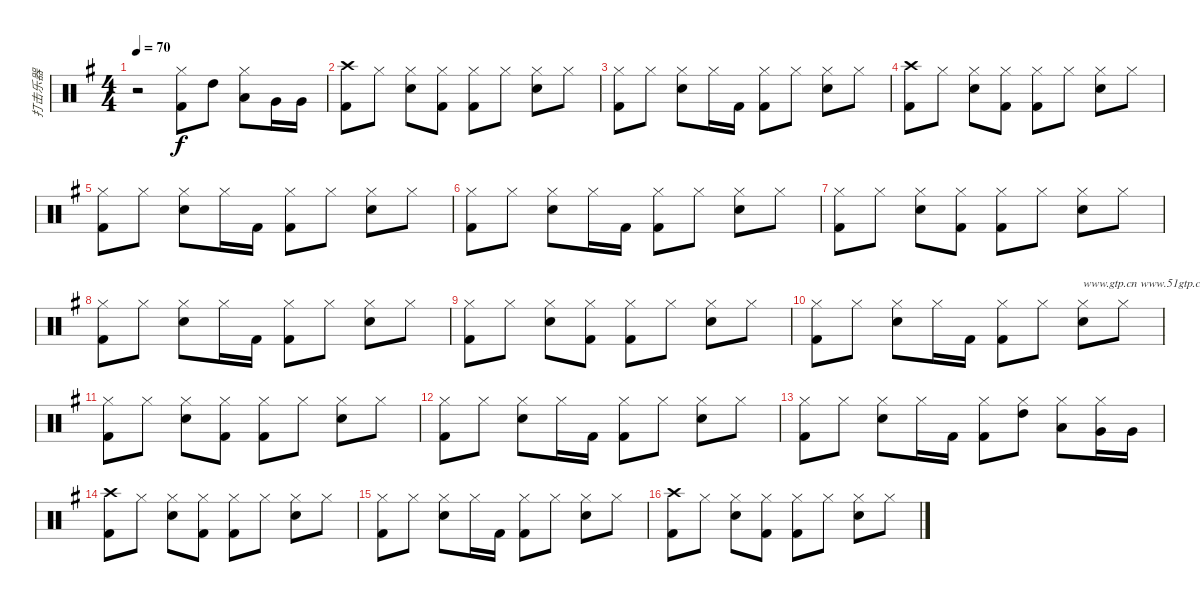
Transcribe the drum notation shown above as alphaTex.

\track ("打击乐器" "打击乐器") {instrument percussion}
\staff {score}
\articulation defaults
\ts (4 4)
\tempo 70
\clef neutral
\ks g
r.2{dy f} ("Kick (hit) 2" "Hi-Hat (closed)").8 "High Tom (hit)".8 ("Low Tom (hit)" "Hi-Hat (closed)").8 "Very Low Tom (hit)".16 "Very Low Tom (hit)".16 |
("Crash high (hit)" "Kick (hit) 2").8 "Hi-Hat (closed)".8 ("Hi-Hat (closed)" "Snare (hit) 2").8 ("Hi-Hat (closed)" "Kick (hit) 2").8 ("Hi-Hat (closed)" "Kick (hit) 2").8 "Hi-Hat (closed)".8 ("Hi-Hat (closed)" "Snare (hit) 2").8 "Hi-Hat (closed)".8 |
("Hi-Hat (closed)" "Kick (hit) 2").8 "Hi-Hat (closed)".8 ("Hi-Hat (closed)" "Snare (hit) 2").8 "Hi-Hat (closed)".16 "Kick (hit) 2".16 ("Hi-Hat (closed)" "Kick (hit) 2").8 "Hi-Hat (closed)".8 ("Hi-Hat (closed)" "Snare (hit) 2").8 "Hi-Hat (closed)".8 |
("Crash high (hit)" "Kick (hit) 2").8 "Hi-Hat (closed)".8 ("Hi-Hat (closed)" "Snare (hit) 2").8 ("Hi-Hat (closed)" "Kick (hit) 2").8 ("Hi-Hat (closed)" "Kick (hit) 2").8 "Hi-Hat (closed)".8 ("Hi-Hat (closed)" "Snare (hit) 2").8 "Hi-Hat (closed)".8 |
("Hi-Hat (closed)" "Kick (hit) 2").8 "Hi-Hat (closed)".8 ("Hi-Hat (closed)" "Snare (hit) 2").8 "Hi-Hat (closed)".16 "Kick (hit) 2".16 ("Hi-Hat (closed)" "Kick (hit) 2").8 "Hi-Hat (closed)".8 ("Hi-Hat (closed)" "Snare (hit) 2").8 "Hi-Hat (closed)".8 |
("Hi-Hat (closed)" "Kick (hit) 2").8 "Hi-Hat (closed)".8 ("Hi-Hat (closed)" "Snare (hit) 2").8 "Hi-Hat (closed)".16 "Kick (hit) 2".16 ("Hi-Hat (closed)" "Kick (hit) 2").8 "Hi-Hat (closed)".8 ("Hi-Hat (closed)" "Snare (hit) 2").8 "Hi-Hat (closed)".8 |
("Hi-Hat (closed)" "Kick (hit) 2").8 "Hi-Hat (closed)".8 ("Hi-Hat (closed)" "Snare (hit) 2").8 ("Hi-Hat (closed)" "Kick (hit) 2").8 ("Hi-Hat (closed)" "Kick (hit) 2").8 "Hi-Hat (closed)".8 ("Hi-Hat (closed)" "Snare (hit) 2").8 "Hi-Hat (closed)".8 |
("Hi-Hat (closed)" "Kick (hit) 2").8 "Hi-Hat (closed)".8 ("Hi-Hat (closed)" "Snare (hit) 2").8 "Hi-Hat (closed)".16 "Kick (hit) 2".16 ("Hi-Hat (closed)" "Kick (hit) 2").8 "Hi-Hat (closed)".8 ("Hi-Hat (closed)" "Snare (hit) 2").8 "Hi-Hat (closed)".8 |
("Hi-Hat (closed)" "Kick (hit) 2").8 "Hi-Hat (closed)".8 ("Hi-Hat (closed)" "Snare (hit) 2").8 ("Hi-Hat (closed)" "Kick (hit) 2").8 ("Hi-Hat (closed)" "Kick (hit) 2").8 "Hi-Hat (closed)".8 ("Hi-Hat (closed)" "Snare (hit) 2").8 "Hi-Hat (closed)".8 |
("Hi-Hat (closed)" "Kick (hit) 2").8 "Hi-Hat (closed)".8 ("Hi-Hat (closed)" "Snare (hit) 2").8 "Hi-Hat (closed)".16 "Kick (hit) 2".16 ("Hi-Hat (closed)" "Kick (hit) 2").8 "Hi-Hat (closed)".8 ("Hi-Hat (closed)" "Snare (hit) 2").8{txt "www.gtp.cn www.51gtp.com联合为您提供优秀的GTP!"} "Hi-Hat (closed)".8 |
("Hi-Hat (closed)" "Kick (hit) 2").8 "Hi-Hat (closed)".8 ("Hi-Hat (closed)" "Snare (hit) 2").8 ("Hi-Hat (closed)" "Kick (hit) 2").8 ("Hi-Hat (closed)" "Kick (hit) 2").8 "Hi-Hat (closed)".8 ("Hi-Hat (closed)" "Snare (hit) 2").8 "Hi-Hat (closed)".8 |
("Hi-Hat (closed)" "Kick (hit) 2").8 "Hi-Hat (closed)".8 ("Hi-Hat (closed)" "Snare (hit) 2").8 "Hi-Hat (closed)".16 "Kick (hit) 2".16 ("Hi-Hat (closed)" "Kick (hit) 2").8 "Hi-Hat (closed)".8 ("Hi-Hat (closed)" "Snare (hit) 2").8 "Hi-Hat (closed)".8 |
("Hi-Hat (closed)" "Kick (hit) 2").8 "Hi-Hat (closed)".8 ("Hi-Hat (closed)" "Snare (hit) 2").8 "Hi-Hat (closed)".16 "Kick (hit) 2".16 ("Hi-Hat (closed)" "Kick (hit) 2").8 ("Hi-Hat (closed)" "High Tom (hit)").8 ("Hi-Hat (closed)" "Low Tom (hit)").8 ("Hi-Hat (closed)" "Very Low Tom (hit)").16 "Very Low Tom (hit)".16 |
("Crash high (hit)" "Kick (hit) 2").8 "Hi-Hat (closed)".8 ("Hi-Hat (closed)" "Snare (hit) 2").8 ("Hi-Hat (closed)" "Kick (hit) 2").8 ("Hi-Hat (closed)" "Kick (hit) 2").8 "Hi-Hat (closed)".8 ("Hi-Hat (closed)" "Snare (hit) 2").8 "Hi-Hat (closed)".8 |
("Hi-Hat (closed)" "Kick (hit) 2").8 "Hi-Hat (closed)".8 ("Hi-Hat (closed)" "Snare (hit) 2").8 "Hi-Hat (closed)".16 "Kick (hit) 2".16 ("Hi-Hat (closed)" "Kick (hit) 2").8 "Hi-Hat (closed)".8 ("Hi-Hat (closed)" "Snare (hit) 2").8 "Hi-Hat (closed)".8 |
("Crash high (hit)" "Kick (hit) 2").8 "Hi-Hat (closed)".8 ("Hi-Hat (closed)" "Snare (hit) 2").8 ("Hi-Hat (closed)" "Kick (hit) 2").8 ("Hi-Hat (closed)" "Kick (hit) 2").8 "Hi-Hat (closed)".8 ("Hi-Hat (closed)" "Snare (hit) 2").8 "Hi-Hat (closed)".8
